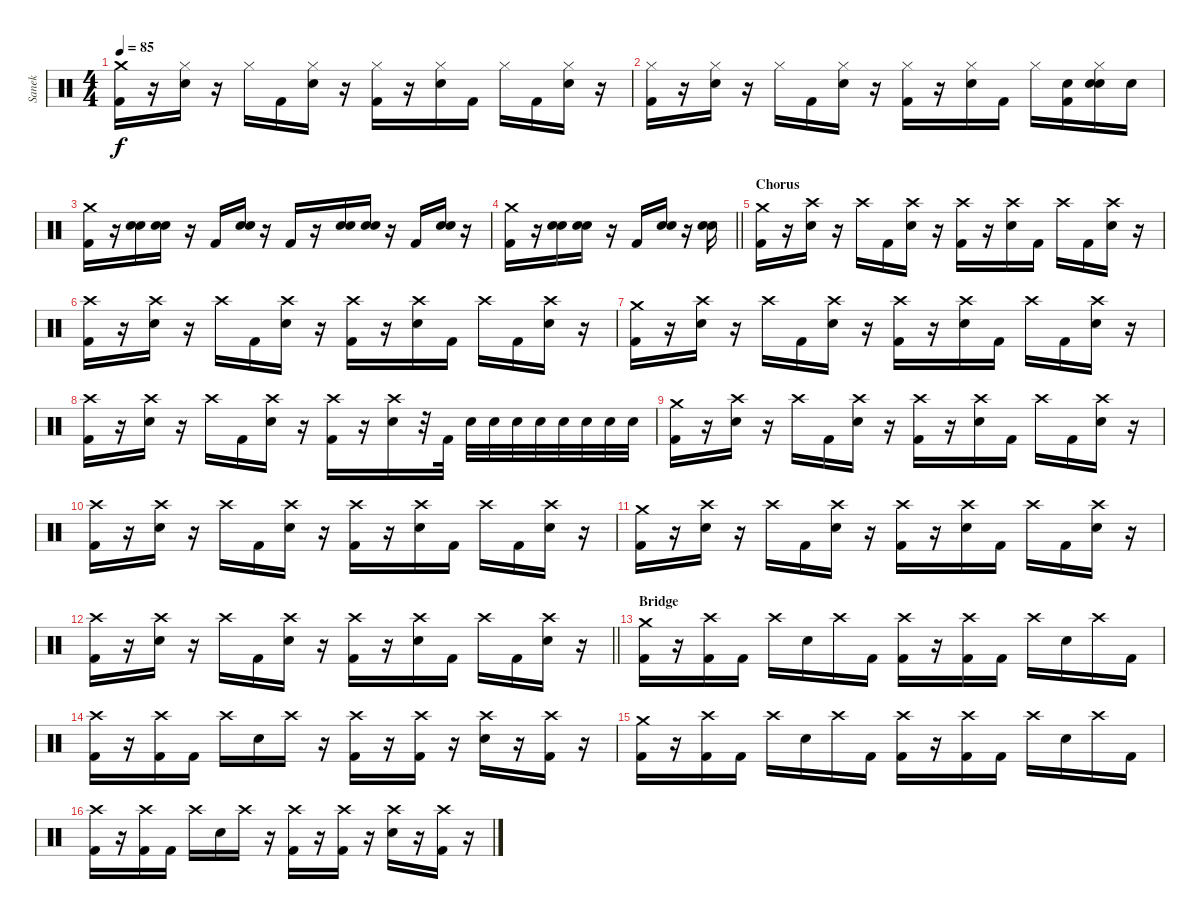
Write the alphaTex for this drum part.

\track ("Sanek" "Sanek") {instrument percussion}
\staff {score}
\articulation defaults
\ts (4 4)
\tempo 85
\clef neutral
\ks c
("Kick (hit) 2" "Crash medium (hit)").16{dy f} r.16 ("Electric Snare (hit)" "Hi-Hat (closed)").16 r.16 "Hi-Hat (closed)".16 "Kick (hit) 2".16 ("Electric Snare (hit)" "Hi-Hat (closed)").16 r.16 ("Kick (hit) 2" "Hi-Hat (closed)").16 r.16 ("Electric Snare (hit)" "Hi-Hat (closed)").16 "Kick (hit) 2".16 "Hi-Hat (closed)".16 "Kick (hit) 2".16 ("Electric Snare (hit)" "Hi-Hat (closed)").16 r.16 |
("Kick (hit) 2" "Hi-Hat (closed)").16 r.16 ("Electric Snare (hit)" "Hi-Hat (closed)").16 r.16 "Hi-Hat (closed)".16 "Kick (hit) 2".16 ("Electric Snare (hit)" "Hi-Hat (closed)").16 r.16 ("Kick (hit) 2" "Hi-Hat (closed)").16 r.16 ("Electric Snare (hit)" "Hi-Hat (closed)").16 "Kick (hit) 2".16 "Hi-Hat (closed)".16 ("Kick (hit) 2" "Hand Clap (hit)").16 ("Electric Snare (hit)" "Hi-Hat (closed)" "Hand Clap (hit)").16 "Electric Snare (hit)".16 |
("Kick (hit) 2" "Crash medium (hit)").16 r.16 ("Electric Snare (hit)" "Hand Clap (hit)").16 ("Electric Snare (hit)" "Hand Clap (hit)").16 r.16 "Kick (hit) 2".16 ("Electric Snare (hit)" "Hand Clap (hit)").16 r.16 "Kick (hit) 2".16 r.16 ("Electric Snare (hit)" "Hand Clap (hit)").16 ("Electric Snare (hit)" "Hand Clap (hit)").16 r.16 "Kick (hit) 2".16 ("Electric Snare (hit)" "Hand Clap (hit)").16 r.16 |
\barLineRight lightlight
("Kick (hit) 2" "Crash medium (hit)").16 r.16 ("Electric Snare (hit)" "Hand Clap (hit)").16 ("Electric Snare (hit)" "Hand Clap (hit)").16 r.16 "Kick (hit) 2".16 ("Electric Snare (hit)" "Hand Clap (hit)").16 r.16 ("Electric Snare (hit)" "Hand Clap (hit)").16 |
\section ("" "Chorus")
("Kick (hit) 2" "Crash medium (hit)").16 r.16 ("Electric Snare (hit)" "Crash high (hit)").16 r.16 "Crash high (hit)".16 "Kick (hit) 2".16 ("Electric Snare (hit)" "Crash high (hit)").16 r.16 ("Kick (hit) 2" "Crash high (hit)").16 r.16 ("Electric Snare (hit)" "Crash high (hit)").16 "Kick (hit) 2".16 "Crash high (hit)".16 "Kick (hit) 2".16 ("Electric Snare (hit)" "Crash high (hit)").16 r.16 |
("Kick (hit) 2" "Crash high (hit)").16 r.16 ("Electric Snare (hit)" "Crash high (hit)").16 r.16 "Crash high (hit)".16 "Kick (hit) 2".16 ("Electric Snare (hit)" "Crash high (hit)").16 r.16 ("Kick (hit) 2" "Crash high (hit)").16 r.16 ("Electric Snare (hit)" "Crash high (hit)").16 "Kick (hit) 2".16 "Crash high (hit)".16 "Kick (hit) 2".16 ("Electric Snare (hit)" "Crash high (hit)").16 r.16 |
("Kick (hit) 2" "Crash medium (hit)").16 r.16 ("Electric Snare (hit)" "Crash high (hit)").16 r.16 "Crash high (hit)".16 "Kick (hit) 2".16 ("Electric Snare (hit)" "Crash high (hit)").16 r.16 ("Kick (hit) 2" "Crash high (hit)").16 r.16 ("Electric Snare (hit)" "Crash high (hit)").16 "Kick (hit) 2".16 "Crash high (hit)".16 "Kick (hit) 2".16 ("Electric Snare (hit)" "Crash high (hit)").16 r.16 |
("Kick (hit) 2" "Crash high (hit)").16 r.16 ("Electric Snare (hit)" "Crash high (hit)").16 r.16 "Crash high (hit)".16 "Kick (hit) 2".16 ("Electric Snare (hit)" "Crash high (hit)").16 r.16 ("Kick (hit) 2" "Crash high (hit)").16 r.16 ("Electric Snare (hit)" "Crash high (hit)").16 r.32 "Kick (hit) 2".32 "Electric Snare (hit)".32 "Electric Snare (hit)".32 "Electric Snare (hit)".32 "Electric Snare (hit)".32 "Electric Snare (hit)".32 "Electric Snare (hit)".32 "Electric Snare (hit)".32 "Electric Snare (hit)".32 |
("Kick (hit) 2" "Crash medium (hit)").16 r.16 ("Electric Snare (hit)" "Crash high (hit)").16 r.16 "Crash high (hit)".16 "Kick (hit) 2".16 ("Electric Snare (hit)" "Crash high (hit)").16 r.16 ("Kick (hit) 2" "Crash high (hit)").16 r.16 ("Electric Snare (hit)" "Crash high (hit)").16 "Kick (hit) 2".16 "Crash high (hit)".16 "Kick (hit) 2".16 ("Electric Snare (hit)" "Crash high (hit)").16 r.16 |
("Kick (hit) 2" "Crash high (hit)").16 r.16 ("Electric Snare (hit)" "Crash high (hit)").16 r.16 "Crash high (hit)".16 "Kick (hit) 2".16 ("Electric Snare (hit)" "Crash high (hit)").16 r.16 ("Kick (hit) 2" "Crash high (hit)").16 r.16 ("Electric Snare (hit)" "Crash high (hit)").16 "Kick (hit) 2".16 "Crash high (hit)".16 "Kick (hit) 2".16 ("Electric Snare (hit)" "Crash high (hit)").16 r.16 |
("Kick (hit) 2" "Crash medium (hit)").16 r.16 ("Electric Snare (hit)" "Crash high (hit)").16 r.16 "Crash high (hit)".16 "Kick (hit) 2".16 ("Electric Snare (hit)" "Crash high (hit)").16 r.16 ("Kick (hit) 2" "Crash high (hit)").16 r.16 ("Electric Snare (hit)" "Crash high (hit)").16 "Kick (hit) 2".16 "Crash high (hit)".16 "Kick (hit) 2".16 ("Electric Snare (hit)" "Crash high (hit)").16 r.16 |
\barLineRight lightlight
("Kick (hit) 2" "Crash high (hit)").16 r.16 ("Electric Snare (hit)" "Crash high (hit)").16 r.16 "Crash high (hit)".16 "Kick (hit) 2".16 ("Electric Snare (hit)" "Crash high (hit)").16 r.16 ("Kick (hit) 2" "Crash high (hit)").16 r.16 ("Electric Snare (hit)" "Crash high (hit)").16 "Kick (hit) 2".16 "Crash high (hit)".16 "Kick (hit) 2".16 ("Electric Snare (hit)" "Crash high (hit)").16 r.16 |
\section ("" "Bridge")
("Kick (hit) 2" "Crash medium (hit)").16 r.16 ("Kick (hit) 2" "Crash high (hit)").16 "Kick (hit) 2".16 "Crash high (hit)".16 "Electric Snare (hit)".16 "Crash high (hit)".16 "Kick (hit) 2".16 ("Kick (hit) 2" "Crash high (hit)").16 r.16 ("Kick (hit) 2" "Crash high (hit)").16 "Kick (hit) 2".16 "Crash high (hit)".16 "Electric Snare (hit)".16 "Crash high (hit)".16 "Kick (hit) 2".16 |
("Kick (hit) 2" "Crash high (hit)").16 r.16 ("Kick (hit) 2" "Crash high (hit)").16 "Kick (hit) 2".16 "Crash high (hit)".16 "Electric Snare (hit)".16 "Crash high (hit)".16 r.16 ("Kick (hit) 2" "Crash high (hit)").16 r.16 ("Kick (hit) 2" "Crash high (hit)").16 r.16 ("Electric Snare (hit)" "Crash high (hit)").16 r.16 ("Kick (hit) 2" "Crash high (hit)").16 r.16 |
("Kick (hit) 2" "Crash medium (hit)").16 r.16 ("Kick (hit) 2" "Crash high (hit)").16 "Kick (hit) 2".16 "Crash high (hit)".16 "Electric Snare (hit)".16 "Crash high (hit)".16 "Kick (hit) 2".16 ("Kick (hit) 2" "Crash high (hit)").16 r.16 ("Kick (hit) 2" "Crash high (hit)").16 "Kick (hit) 2".16 "Crash high (hit)".16 "Electric Snare (hit)".16 "Crash high (hit)".16 "Kick (hit) 2".16 |
("Kick (hit) 2" "Crash high (hit)").16 r.16 ("Kick (hit) 2" "Crash high (hit)").16 "Kick (hit) 2".16 "Crash high (hit)".16 "Electric Snare (hit)".16 "Crash high (hit)".16 r.16 ("Kick (hit) 2" "Crash high (hit)").16 r.16 ("Kick (hit) 2" "Crash high (hit)").16 r.16 ("Electric Snare (hit)" "Crash high (hit)").16 r.16 ("Kick (hit) 2" "Crash high (hit)").16 r.16
